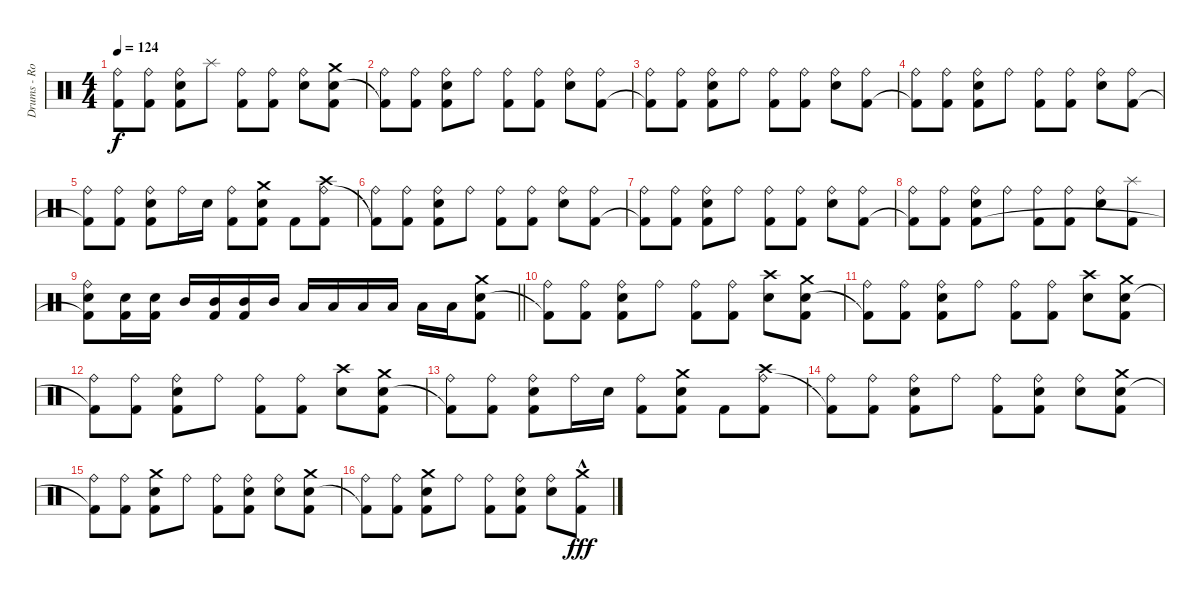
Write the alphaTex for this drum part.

\track ("Drums - Rockenfield" "Drums - Ro") {instrument percussion}
\staff {score}
\articulation defaults
\ts (4 4)
\tempo 124
\clef neutral
\ks c
("Ride (bell)" "Kick (hit) 2"{t}).8{dy f} ("Ride (bell)" "Kick (hit) 2").8 ("Ride (bell)" "Snare (hit) 2" "Kick (hit) 2").8 "Splash (hit)".8 ("Ride (bell)" "Kick (hit) 2").8 ("Ride (bell)" "Kick (hit) 2").8 ("Ride (bell)" "Snare (hit) 2").8 ("Crash medium (hit)" "Snare (hit) 2" "Kick (hit) 2").8 |
("Ride (bell)" "Kick (hit) 2"{t}).8 ("Ride (bell)" "Kick (hit) 2").8 ("Ride (bell)" "Snare (hit) 2" "Kick (hit) 2").8 "Ride (bell)".8 ("Ride (bell)" "Kick (hit) 2").8 ("Ride (bell)" "Kick (hit) 2").8 ("Ride (bell)" "Snare (hit) 2").8 ("Ride (bell)" "Kick (hit) 2").8 |
("Ride (bell)" "Kick (hit) 2"{t}).8 ("Ride (bell)" "Kick (hit) 2").8 ("Ride (bell)" "Snare (hit) 2" "Kick (hit) 2").8 "Ride (bell)".8 ("Ride (bell)" "Kick (hit) 2").8 ("Ride (bell)" "Kick (hit) 2").8 ("Ride (bell)" "Snare (hit) 2").8 ("Ride (bell)" "Kick (hit) 2").8 |
("Ride (bell)" "Kick (hit) 2"{t}).8 ("Ride (bell)" "Kick (hit) 2").8 ("Ride (bell)" "Snare (hit) 2" "Kick (hit) 2").8 "Ride (bell)".8 ("Ride (bell)" "Kick (hit) 2").8 ("Ride (bell)" "Kick (hit) 2").8 ("Ride (bell)" "Snare (hit) 2").8 ("Ride (bell)" "Kick (hit) 2").8 |
("Ride (bell)" "Kick (hit) 2"{t}).8 ("Ride (bell)" "Kick (hit) 2").8 ("Ride (bell)" "Snare (hit) 2" "Kick (hit) 2").8 "Ride (bell)".16 "Snare (hit) 2".16 ("Ride (bell)" "Kick (hit) 2").8 ("Crash medium (hit)" "Snare (hit) 2" "Kick (hit) 2").8 "Kick (hit) 2".8 ("Crash high (hit)" "Ride (bell)" "Kick (hit) 2").8 |
("Ride (bell)" "Kick (hit) 2"{t}).8 ("Ride (bell)" "Kick (hit) 2").8 ("Ride (bell)" "Snare (hit) 2" "Kick (hit) 2").8 "Ride (bell)".8 ("Ride (bell)" "Kick (hit) 2").8 ("Ride (bell)" "Kick (hit) 2").8 ("Ride (bell)" "Snare (hit) 2").8 ("Ride (bell)" "Kick (hit) 2").8 |
("Ride (bell)" "Kick (hit) 2"{t}).8 ("Ride (bell)" "Kick (hit) 2").8 ("Ride (bell)" "Snare (hit) 2" "Kick (hit) 2").8 "Ride (bell)".8 ("Ride (bell)" "Kick (hit) 2").8 ("Ride (bell)" "Kick (hit) 2").8 ("Ride (bell)" "Snare (hit) 2").8 ("Ride (bell)" "Kick (hit) 2").8 |
("Ride (bell)" "Kick (hit) 2"{t}).8 ("Ride (bell)" "Kick (hit) 2").8 ("Ride (bell)" "Snare (hit) 2" "Kick (hit) 2").8 "Ride (bell)".8 ("Ride (bell)" "Kick (hit) 2").8 ("Ride (bell)" "Kick (hit) 2").8 ("Ride (bell)" "Snare (hit) 2").8 ("Splash (hit)" "Kick (hit) 2").8 |
\barLineRight lightlight
("Ride (bell)" "Snare (hit) 2" "Kick (hit) 2"{t}).8 ("Snare (hit) 2" "Kick (hit) 2").16 ("Snare (hit) 2" "Kick (hit) 2").16 "Mid Tom (hit)".16 ("Mid Tom (hit)" "Kick (hit) 2").16 ("Mid Tom (hit)" "Kick (hit) 2").16 "Mid Tom (hit)".16 "Low Floor Tom (hit)".16 "Low Floor Tom (hit)".16 "Low Floor Tom (hit)".16 "Low Floor Tom (hit)".16 "Low Floor Tom (hit)".16 "Low Floor Tom (hit)".16 ("Crash medium (hit)" "Snare (hit) 2" "Kick (hit) 2").8 |
("Ride (bell)" "Kick (hit) 2"{t}).8 ("Ride (bell)" "Kick (hit) 2").8 ("Ride (bell)" "Snare (hit) 2" "Kick (hit) 2").8 "Ride (bell)".8 ("Ride (bell)" "Kick (hit) 2").8 ("Ride (bell)" "Kick (hit) 2").8 ("Crash high (hit)" "Snare (hit) 2").8 ("Crash medium (hit)" "Snare (hit) 2" "Kick (hit) 2").8 |
("Ride (bell)" "Kick (hit) 2"{t}).8 ("Ride (bell)" "Kick (hit) 2").8 ("Ride (bell)" "Snare (hit) 2" "Kick (hit) 2").8 "Ride (bell)".8 ("Ride (bell)" "Kick (hit) 2").8 ("Ride (bell)" "Kick (hit) 2").8 ("Crash high (hit)" "Snare (hit) 2").8 ("Crash medium (hit)" "Snare (hit) 2" "Kick (hit) 2").8 |
("Ride (bell)" "Kick (hit) 2"{t}).8 ("Ride (bell)" "Kick (hit) 2").8 ("Ride (bell)" "Snare (hit) 2" "Kick (hit) 2").8 "Ride (bell)".8 ("Ride (bell)" "Kick (hit) 2").8 ("Ride (bell)" "Kick (hit) 2").8 ("Crash high (hit)" "Snare (hit) 2").8 ("Crash medium (hit)" "Snare (hit) 2" "Kick (hit) 2").8 |
("Ride (bell)" "Kick (hit) 2"{t}).8 ("Ride (bell)" "Kick (hit) 2").8 ("Ride (bell)" "Snare (hit) 2" "Kick (hit) 2").8 "Ride (bell)".16 "Snare (hit) 2".16 ("Ride (bell)" "Kick (hit) 2").8 ("Crash medium (hit)" "Snare (hit) 2" "Kick (hit) 2").8 "Kick (hit) 2".8 ("Crash high (hit)" "Ride (bell)" "Kick (hit) 2").8 |
("Ride (bell)" "Kick (hit) 2"{t}).8 ("Ride (bell)" "Kick (hit) 2").8 ("Ride (bell)" "Snare (hit) 2" "Kick (hit) 2").8 "Ride (bell)".8 ("Ride (bell)" "Kick (hit) 2").8 ("Ride (bell)" "Snare (hit) 2" "Kick (hit) 2").8 ("Ride (bell)" "Snare (hit) 2").8 ("Crash medium (hit)" "Snare (hit) 2" "Kick (hit) 2").8 |
("Ride (bell)" "Kick (hit) 2"{t}).8 ("Ride (bell)" "Kick (hit) 2").8 ("Crash medium (hit)" "Snare (hit) 2" "Kick (hit) 2").8 "Ride (bell)".8 ("Ride (bell)" "Kick (hit) 2").8 ("Ride (bell)" "Snare (hit) 2" "Kick (hit) 2").8 ("Ride (bell)" "Snare (hit) 2").8 ("Crash medium (hit)" "Snare (hit) 2" "Kick (hit) 2").8 |
("Ride (bell)" "Kick (hit) 2"{t}).8 ("Ride (bell)" "Kick (hit) 2").8 ("Crash medium (hit)" "Snare (hit) 2" "Kick (hit) 2").8 "Ride (bell)".8 ("Ride (bell)" "Kick (hit) 2").8 ("Ride (bell)" "Snare (hit) 2" "Kick (hit) 2").8 ("Ride (bell)" "Snare (hit) 2").8 ("Crash medium (hit)"{hac} "Kick (hit) 2"{hac}).8{dy fff}
